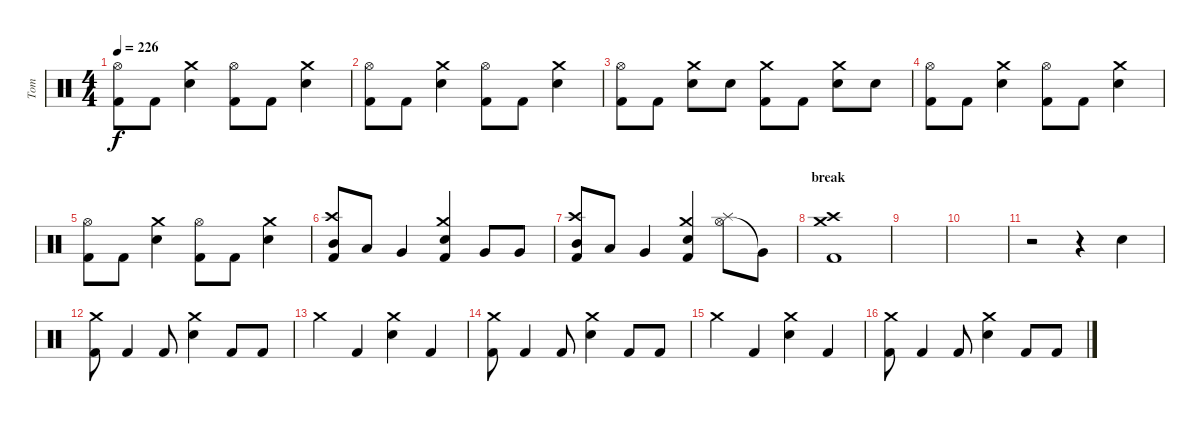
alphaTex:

\track ("Tom" "Tom") {instrument percussion}
\staff {score}
\articulation defaults
\ts (4 4)
\tempo 226
\clef neutral
\ks c
("Hi-Hat (open)" "Kick (hit) 2").8{dy f} "Kick (hit) 2".8 ("Crash medium (hit)" "Electric Snare (hit)").4 ("Hi-Hat (open)" "Kick (hit) 2").8 "Kick (hit) 2".8 ("Crash medium (hit)" "Electric Snare (hit)").4 |
("Hi-Hat (open)" "Kick (hit) 2").8 "Kick (hit) 2".8 ("Crash medium (hit)" "Electric Snare (hit)").4 ("Hi-Hat (open)" "Kick (hit) 2").8 "Kick (hit) 2".8 ("Crash medium (hit)" "Electric Snare (hit)").4 |
("Hi-Hat (open)" "Kick (hit) 2").8 "Kick (hit) 2".8 ("Crash medium (hit)" "Electric Snare (hit)").8 "Electric Snare (hit)".8 ("Crash medium (hit)" "Kick (hit) 2").8 "Kick (hit) 2".8 ("Crash medium (hit)" "Electric Snare (hit)").8 "Electric Snare (hit)".8 |
("Hi-Hat (open)" "Kick (hit) 2").8 "Kick (hit) 2".8 ("Crash medium (hit)" "Electric Snare (hit)").4 ("Hi-Hat (open)" "Kick (hit) 2").8 "Kick (hit) 2".8 ("Crash medium (hit)" "Electric Snare (hit)").4 |
("Hi-Hat (open)" "Kick (hit) 2").8 "Kick (hit) 2".8 ("Crash medium (hit)" "Electric Snare (hit)").4 ("Hi-Hat (open)" "Kick (hit) 2").8 "Kick (hit) 2".8 ("Crash medium (hit)" "Electric Snare (hit)").4 |
("Crash high (hit)" "Mid Tom (hit)" "Kick (hit) 2").8 "Low Tom (hit)".8 "Very Low Tom (hit)".4 ("Crash medium (hit)" "Electric Snare (hit)" "Kick (hit) 2").4 "Very Low Tom (hit)".8 "Very Low Tom (hit)".8 |
("Crash high (hit)" "Mid Tom (hit)" "Kick (hit) 2").8 "Low Tom (hit)".8 "Very Low Tom (hit)".4 ("Crash medium (hit)" "Electric Snare (hit)" "Kick (hit) 2").4 ("Hi-Hat (open)" "Splash (hit)").8 "Very Low Tom (hit)"{t}.8 |
\section ("" "break")
("Crash high (hit)" "Kick (hit) 2" "Crash medium (hit)").1 |
|
|
r.2 r.4 "Electric Snare (hit)".4 |
("Crash medium (hit)" "Kick (hit) 2").8 "Kick (hit) 2".4 "Kick (hit) 2".8 ("Crash medium (hit)" "Electric Snare (hit)").4 "Kick (hit) 2".8 "Kick (hit) 2".8 |
"Crash medium (hit)".4 "Kick (hit) 2".4 ("Crash medium (hit)" "Electric Snare (hit)").4 "Kick (hit) 2".4 |
("Crash medium (hit)" "Kick (hit) 2").8 "Kick (hit) 2".4 "Kick (hit) 2".8 ("Crash medium (hit)" "Electric Snare (hit)").4 "Kick (hit) 2".8 "Kick (hit) 2".8 |
"Crash medium (hit)".4 "Kick (hit) 2".4 ("Crash medium (hit)" "Electric Snare (hit)").4 "Kick (hit) 2".4 |
("Crash medium (hit)" "Kick (hit) 2").8 "Kick (hit) 2".4 "Kick (hit) 2".8 ("Crash medium (hit)" "Electric Snare (hit)").4 "Kick (hit) 2".8 "Kick (hit) 2".8
